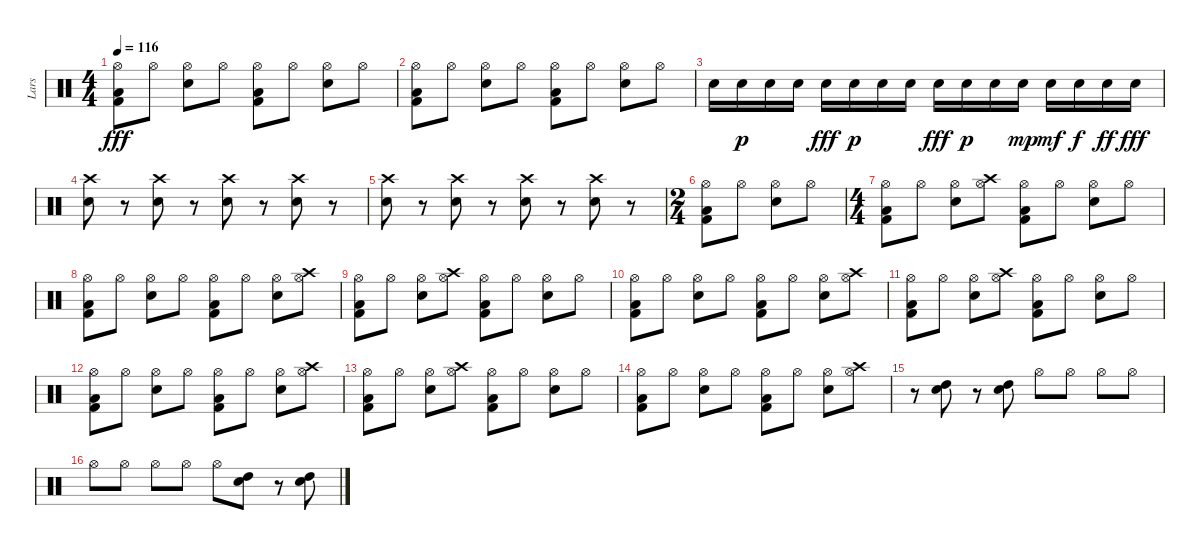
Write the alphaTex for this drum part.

\track ("Lars" "Lars") {instrument percussion}
\staff {score}
\articulation defaults
\ts (4 4)
\tempo 116
\clef neutral
\ks c
("Low Floor Tom (hit)" "Hi-Hat (open)" "Kick (hit) 2").8{dy fff} "Hi-Hat (open)".8 ("Hi-Hat (open)" "Electric Snare (hit)").8 "Hi-Hat (open)".8 ("Low Floor Tom (hit)" "Hi-Hat (open)" "Kick (hit) 2").8 "Hi-Hat (open)".8 ("Hi-Hat (open)" "Electric Snare (hit)").8 "Hi-Hat (open)".8 |
("Low Floor Tom (hit)" "Hi-Hat (open)" "Kick (hit) 2").8 "Hi-Hat (open)".8 ("Hi-Hat (open)" "Electric Snare (hit)").8 "Hi-Hat (open)".8 ("Low Floor Tom (hit)" "Hi-Hat (open)" "Kick (hit) 2").8 "Hi-Hat (open)".8 ("Hi-Hat (open)" "Electric Snare (hit)").8 "Hi-Hat (open)".8 |
"Electric Snare (hit)".16 "Electric Snare (hit)".16{dy p} "Electric Snare (hit)".16 "Electric Snare (hit)".16 "Electric Snare (hit)".16{dy fff} "Electric Snare (hit)".16{dy p} "Electric Snare (hit)".16 "Electric Snare (hit)".16 "Electric Snare (hit)".16{dy fff} "Electric Snare (hit)".16{dy p} "Electric Snare (hit)".16 "Electric Snare (hit)".16{dy mp} "Electric Snare (hit)".16{dy mf} "Electric Snare (hit)".16{dy f} "Electric Snare (hit)".16{dy ff} "Electric Snare (hit)".16{dy fff} |
("Crash high (hit)" "Electric Snare (hit)").8 r.8 ("Crash high (hit)" "Electric Snare (hit)").8 r.8 ("Crash high (hit)" "Electric Snare (hit)").8 r.8 ("Crash high (hit)" "Electric Snare (hit)").8 r.8 |
("Crash high (hit)" "Electric Snare (hit)").8 r.8 ("Crash high (hit)" "Electric Snare (hit)").8 r.8 ("Crash high (hit)" "Electric Snare (hit)").8 r.8 ("Crash high (hit)" "Electric Snare (hit)").8 r.8 |
\ts (2 4)
("Low Floor Tom (hit)" "Hi-Hat (open)" "Kick (hit) 2").8 "Hi-Hat (open)".8 ("Hi-Hat (open)" "Electric Snare (hit)").8 "Hi-Hat (open)".8 |
\ts (4 4)
("Low Floor Tom (hit)" "Hi-Hat (open)" "Kick (hit) 2").8 "Hi-Hat (open)".8 ("Hi-Hat (open)" "Electric Snare (hit)").8 ("Crash high (hit)" "Hi-Hat (open)").8 ("Low Floor Tom (hit)" "Hi-Hat (open)" "Kick (hit) 2").8 "Hi-Hat (open)".8 ("Hi-Hat (open)" "Electric Snare (hit)").8 "Hi-Hat (open)".8 |
("Low Floor Tom (hit)" "Hi-Hat (open)" "Kick (hit) 2").8 "Hi-Hat (open)".8 ("Hi-Hat (open)" "Electric Snare (hit)").8 "Hi-Hat (open)".8 ("Low Floor Tom (hit)" "Hi-Hat (open)" "Kick (hit) 2").8 "Hi-Hat (open)".8 ("Hi-Hat (open)" "Electric Snare (hit)").8 ("Crash high (hit)" "Hi-Hat (open)").8 |
("Low Floor Tom (hit)" "Hi-Hat (open)" "Kick (hit) 2").8 "Hi-Hat (open)".8 ("Hi-Hat (open)" "Electric Snare (hit)").8 ("Crash high (hit)" "Hi-Hat (open)").8 ("Low Floor Tom (hit)" "Hi-Hat (open)" "Kick (hit) 2").8 "Hi-Hat (open)".8 ("Hi-Hat (open)" "Electric Snare (hit)").8 "Hi-Hat (open)".8 |
("Low Floor Tom (hit)" "Hi-Hat (open)" "Kick (hit) 2").8 "Hi-Hat (open)".8 ("Hi-Hat (open)" "Electric Snare (hit)").8 "Hi-Hat (open)".8 ("Low Floor Tom (hit)" "Hi-Hat (open)" "Kick (hit) 2").8 "Hi-Hat (open)".8 ("Hi-Hat (open)" "Electric Snare (hit)").8 ("Crash high (hit)" "Hi-Hat (open)").8 |
("Low Floor Tom (hit)" "Hi-Hat (open)" "Kick (hit) 2").8 "Hi-Hat (open)".8 ("Hi-Hat (open)" "Electric Snare (hit)").8 ("Crash high (hit)" "Hi-Hat (open)").8 ("Low Floor Tom (hit)" "Hi-Hat (open)" "Kick (hit) 2").8 "Hi-Hat (open)".8 ("Hi-Hat (open)" "Electric Snare (hit)").8 "Hi-Hat (open)".8 |
("Low Floor Tom (hit)" "Hi-Hat (open)" "Kick (hit) 2").8 "Hi-Hat (open)".8 ("Hi-Hat (open)" "Electric Snare (hit)").8 "Hi-Hat (open)".8 ("Low Floor Tom (hit)" "Hi-Hat (open)" "Kick (hit) 2").8 "Hi-Hat (open)".8 ("Hi-Hat (open)" "Electric Snare (hit)").8 ("Crash high (hit)" "Hi-Hat (open)").8 |
("Low Floor Tom (hit)" "Hi-Hat (open)" "Kick (hit) 2").8 "Hi-Hat (open)".8 ("Hi-Hat (open)" "Electric Snare (hit)").8 ("Crash high (hit)" "Hi-Hat (open)").8 ("Low Floor Tom (hit)" "Hi-Hat (open)" "Kick (hit) 2").8 "Hi-Hat (open)".8 ("Hi-Hat (open)" "Electric Snare (hit)").8 "Hi-Hat (open)".8 |
("Low Floor Tom (hit)" "Hi-Hat (open)" "Kick (hit) 2").8 "Hi-Hat (open)".8 ("Hi-Hat (open)" "Electric Snare (hit)").8 "Hi-Hat (open)".8 ("Low Floor Tom (hit)" "Hi-Hat (open)" "Kick (hit) 2").8 "Hi-Hat (open)".8 ("Hi-Hat (open)" "Electric Snare (hit)").8 ("Crash high (hit)" "Hi-Hat (open)").8 |
r.8 ("High Tom (hit)" "Electric Snare (hit)").8 r.8 ("High Tom (hit)" "Electric Snare (hit)").8 "Hi-Hat (open)".8 "Hi-Hat (open)".8 "Hi-Hat (open)".8 "Hi-Hat (open)".8 |
"Hi-Hat (open)".8 "Hi-Hat (open)".8 "Hi-Hat (open)".8 "Hi-Hat (open)".8 "Hi-Hat (open)".8 ("High Tom (hit)" "Electric Snare (hit)").8 r.8 ("High Tom (hit)" "Electric Snare (hit)").8
